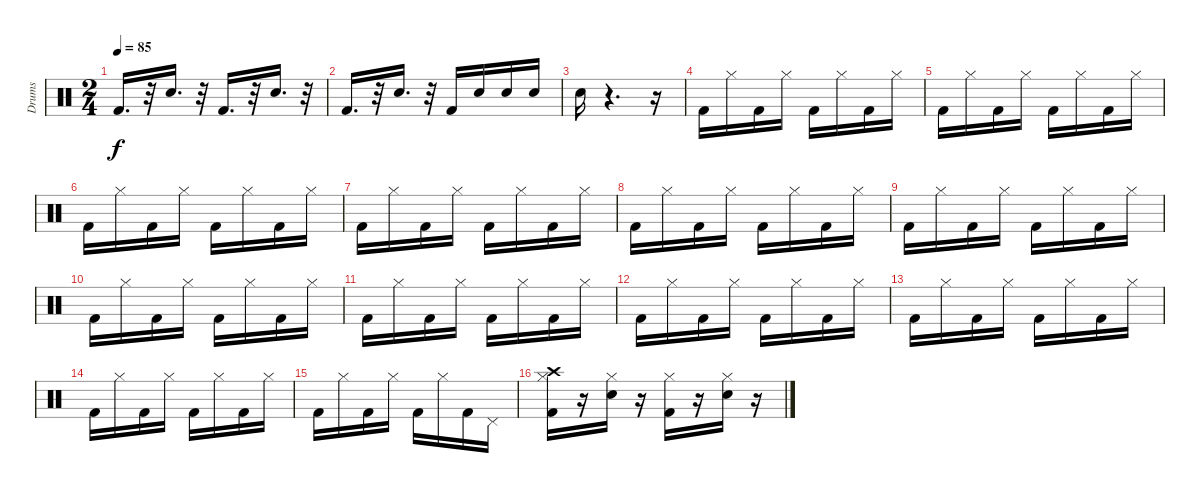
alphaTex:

\track ("Drums" "Drums") {instrument percussion}
\staff {score}
\articulation defaults
\ts (2 4)
\tempo 85
\clef neutral
\ks c "Kick (hit) 2".16{d dy f}
r.32 "Snare (hit) 2".16{d} r.32 "Kick (hit) 2".16{d} r.32 "Snare (hit) 2".16{d} r.32 |
"Kick (hit) 2".16{d} r.32 "Snare (hit) 2".16{d} r.32 "Kick (hit) 2".16 "Snare (hit) 2".16 "Snare (hit) 2".16 "Snare (hit) 2".16 |
"Snare (hit) 2".16 r.4{d} r.16 |
"Kick (hit) 2".16 "Hi-Hat (closed)".16 "Kick (hit) 2".16 "Hi-Hat (closed)".16 "Kick (hit) 2".16 "Hi-Hat (closed)".16 "Kick (hit) 2".16 "Hi-Hat (closed)".16 |
"Kick (hit) 2".16 "Hi-Hat (closed)".16 "Kick (hit) 2".16 "Hi-Hat (closed)".16 "Kick (hit) 2".16 "Hi-Hat (closed)".16 "Kick (hit) 2".16 "Hi-Hat (closed)".16 |
"Kick (hit) 2".16 "Hi-Hat (closed)".16 "Kick (hit) 2".16 "Hi-Hat (closed)".16 "Kick (hit) 2".16 "Hi-Hat (closed)".16 "Kick (hit) 2".16 "Hi-Hat (closed)".16 |
"Kick (hit) 2".16 "Hi-Hat (closed)".16 "Kick (hit) 2".16 "Hi-Hat (closed)".16 "Kick (hit) 2".16 "Hi-Hat (closed)".16 "Kick (hit) 2".16 "Hi-Hat (closed)".16 |
"Kick (hit) 2".16 "Hi-Hat (closed)".16 "Kick (hit) 2".16 "Hi-Hat (closed)".16 "Kick (hit) 2".16 "Hi-Hat (closed)".16 "Kick (hit) 2".16 "Hi-Hat (closed)".16 |
"Kick (hit) 2".16 "Hi-Hat (closed)".16 "Kick (hit) 2".16 "Hi-Hat (closed)".16 "Kick (hit) 2".16 "Hi-Hat (closed)".16 "Kick (hit) 2".16 "Hi-Hat (closed)".16 |
"Kick (hit) 2".16 "Hi-Hat (closed)".16 "Kick (hit) 2".16 "Hi-Hat (closed)".16 "Kick (hit) 2".16 "Hi-Hat (closed)".16 "Kick (hit) 2".16 "Hi-Hat (closed)".16 |
"Kick (hit) 2".16 "Hi-Hat (closed)".16 "Kick (hit) 2".16 "Hi-Hat (closed)".16 "Kick (hit) 2".16 "Hi-Hat (closed)".16 "Kick (hit) 2".16 "Hi-Hat (closed)".16 |
"Kick (hit) 2".16 "Hi-Hat (closed)".16 "Kick (hit) 2".16 "Hi-Hat (closed)".16 "Kick (hit) 2".16 "Hi-Hat (closed)".16 "Kick (hit) 2".16 "Hi-Hat (closed)".16 |
"Kick (hit) 2".16 "Hi-Hat (closed)".16 "Kick (hit) 2".16 "Hi-Hat (closed)".16 "Kick (hit) 2".16 "Hi-Hat (closed)".16 "Kick (hit) 2".16 "Hi-Hat (closed)".16 |
"Kick (hit) 2".16 "Hi-Hat (closed)".16 "Kick (hit) 2".16 "Hi-Hat (closed)".16 "Kick (hit) 2".16 "Hi-Hat (closed)".16 "Kick (hit) 2".16 "Hi-Hat (closed)".16 |
"Kick (hit) 2".16 "Hi-Hat (closed)".16 "Kick (hit) 2".16 "Hi-Hat (closed)".16 "Kick (hit) 2".16 "Hi-Hat (closed)".16 "Kick (hit) 2".16 "Pedal Hi-Hat (hit)".16 |
("Kick (hit) 2" "Hi-Hat (closed)" "Crash high (hit)").16 r.16 ("Hi-Hat (closed)" "Snare (hit) 2").16 r.16 ("Hi-Hat (closed)" "Kick (hit) 2").16 r.16 ("Hi-Hat (closed)" "Snare (hit) 2").16 r.16
